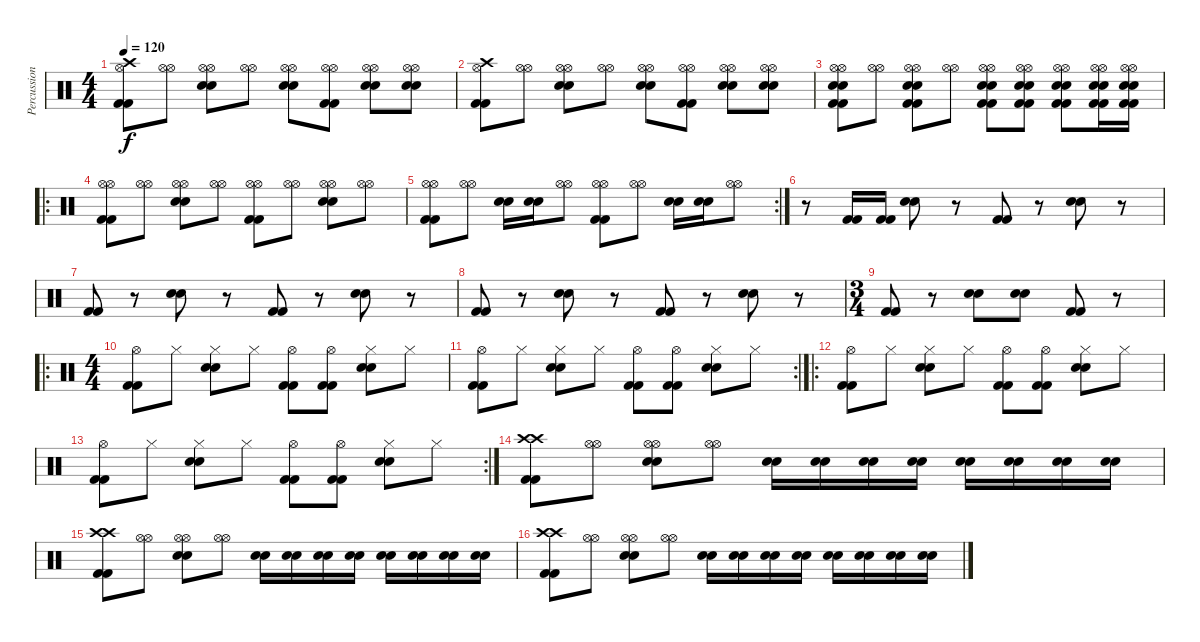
\track ("Percussions" "Percussion") {instrument percussion}
\staff {score}
\articulation defaults
\ts (4 4)
\tempo 120
\clef neutral
\ks c
("Crash high (hit)" "Hi-Hat (open)" "Kick (hit) 2" "Kick (hit) 2").8{dy f} ("Hi-Hat (open)" "Hi-Hat (open)").8 ("Hi-Hat (open)" "Hi-Hat (open)" "Snare (hit) 2" "Snare (hit) 2").8 ("Hi-Hat (open)" "Hi-Hat (open)").8 ("Hi-Hat (open)" "Hi-Hat (open)" "Snare (hit) 2" "Snare (hit) 2").8 ("Hi-Hat (open)" "Hi-Hat (open)" "Kick (hit) 2" "Kick (hit) 2").8 ("Hi-Hat (open)" "Hi-Hat (open)" "Snare (hit) 2" "Snare (hit) 2").8 ("Hi-Hat (open)" "Hi-Hat (open)" "Snare (hit) 2" "Snare (hit) 2").8 |
("Crash high (hit)" "Hi-Hat (open)" "Kick (hit) 2" "Kick (hit) 2").8 ("Hi-Hat (open)" "Hi-Hat (open)").8 ("Hi-Hat (open)" "Hi-Hat (open)" "Snare (hit) 2" "Snare (hit) 2").8 ("Hi-Hat (open)" "Hi-Hat (open)").8 ("Hi-Hat (open)" "Hi-Hat (open)" "Snare (hit) 2" "Snare (hit) 2").8 ("Hi-Hat (open)" "Hi-Hat (open)" "Kick (hit) 2" "Kick (hit) 2").8 ("Hi-Hat (open)" "Hi-Hat (open)" "Snare (hit) 2" "Snare (hit) 2").8 ("Hi-Hat (open)" "Hi-Hat (open)" "Snare (hit) 2" "Snare (hit) 2").8 |
("Hi-Hat (open)" "Hi-Hat (open)" "Snare (hit) 2" "Snare (hit) 2" "Kick (hit) 2" "Kick (hit) 2").8 ("Hi-Hat (open)" "Hi-Hat (open)").8 ("Hi-Hat (open)" "Hi-Hat (open)" "Snare (hit) 2" "Snare (hit) 2" "Kick (hit) 2" "Kick (hit) 2").8 ("Hi-Hat (open)" "Hi-Hat (open)").8 ("Hi-Hat (open)" "Hi-Hat (open)" "Snare (hit) 2" "Snare (hit) 2" "Kick (hit) 2" "Kick (hit) 2").8 ("Hi-Hat (open)" "Hi-Hat (open)" "Snare (hit) 2" "Snare (hit) 2" "Kick (hit) 2" "Kick (hit) 2").8 ("Hi-Hat (open)" "Hi-Hat (open)" "Snare (hit) 2" "Snare (hit) 2" "Kick (hit) 2" "Kick (hit) 2").8 ("Hi-Hat (open)" "Hi-Hat (open)" "Snare (hit) 2" "Snare (hit) 2" "Kick (hit) 2" "Kick (hit) 2").16 ("Hi-Hat (open)" "Hi-Hat (open)" "Snare (hit) 2" "Snare (hit) 2" "Kick (hit) 2" "Kick (hit) 2").16 |
\ro
("Hi-Hat (open)" "Hi-Hat (open)" "Kick (hit) 2" "Kick (hit) 2").8 ("Hi-Hat (open)" "Hi-Hat (open)").8 ("Hi-Hat (open)" "Hi-Hat (open)" "Snare (hit) 2" "Snare (hit) 2").8 ("Hi-Hat (open)" "Hi-Hat (open)").8 ("Hi-Hat (open)" "Hi-Hat (open)" "Kick (hit) 2" "Kick (hit) 2").8 ("Hi-Hat (open)" "Hi-Hat (open)").8 ("Hi-Hat (open)" "Hi-Hat (open)" "Snare (hit) 2" "Snare (hit) 2").8 ("Hi-Hat (open)" "Hi-Hat (open)").8 |
\rc 2
("Hi-Hat (open)" "Hi-Hat (open)" "Kick (hit) 2" "Kick (hit) 2").8 ("Hi-Hat (open)" "Hi-Hat (open)").8 ("Snare (hit) 2" "Snare (hit) 2").16 ("Snare (hit) 2" "Snare (hit) 2").16 ("Hi-Hat (open)" "Hi-Hat (open)").8 ("Hi-Hat (open)" "Hi-Hat (open)" "Kick (hit) 2" "Kick (hit) 2").8 ("Hi-Hat (open)" "Hi-Hat (open)").8 ("Snare (hit) 2" "Snare (hit) 2").16 ("Snare (hit) 2" "Snare (hit) 2").16 ("Hi-Hat (open)" "Hi-Hat (open)").8 |
r.8 ("Kick (hit) 2" "Kick (hit) 2").16 ("Kick (hit) 2" "Kick (hit) 2").16 ("Snare (hit) 2" "Snare (hit) 2").8 r.8 ("Kick (hit) 2" "Kick (hit) 2").8 r.8 ("Snare (hit) 2" "Snare (hit) 2").8 r.8 |
("Kick (hit) 2" "Kick (hit) 2").8 r.8 ("Snare (hit) 2" "Snare (hit) 2").8 r.8 ("Kick (hit) 2" "Kick (hit) 2").8 r.8 ("Snare (hit) 2" "Snare (hit) 2").8 r.8 |
("Kick (hit) 2" "Kick (hit) 2").8 r.8 ("Snare (hit) 2" "Snare (hit) 2").8 r.8 ("Kick (hit) 2" "Kick (hit) 2").8 r.8 ("Snare (hit) 2" "Snare (hit) 2").8 r.8 |
\ts (3 4)
("Kick (hit) 2" "Kick (hit) 2").8 r.8 ("Snare (hit) 2" "Snare (hit) 2").8 ("Snare (hit) 2" "Snare (hit) 2").8 ("Kick (hit) 2" "Kick (hit) 2").8 r.8 |
\ro
\ts (4 4)
("Hi-Hat (open)" "Kick (hit) 2" "Kick (hit) 2").8 "Hi-Hat (closed)".8 ("Hi-Hat (closed)" "Snare (hit) 2" "Snare (hit) 2").8 "Hi-Hat (closed)".8 ("Hi-Hat (open)" "Kick (hit) 2" "Kick (hit) 2").8 ("Hi-Hat (open)" "Kick (hit) 2" "Kick (hit) 2").8 ("Hi-Hat (closed)" "Snare (hit) 2" "Snare (hit) 2").8 "Hi-Hat (closed)".8 |
\rc 2
("Hi-Hat (open)" "Kick (hit) 2" "Kick (hit) 2").8 "Hi-Hat (closed)".8 ("Hi-Hat (closed)" "Snare (hit) 2" "Snare (hit) 2").8 "Hi-Hat (closed)".8 ("Hi-Hat (open)" "Kick (hit) 2" "Kick (hit) 2").8 ("Hi-Hat (open)" "Kick (hit) 2" "Kick (hit) 2").8 ("Hi-Hat (closed)" "Snare (hit) 2" "Snare (hit) 2").8 "Hi-Hat (closed)".8 |
\ro
("Hi-Hat (open)" "Kick (hit) 2" "Kick (hit) 2").8 "Hi-Hat (closed)".8 ("Hi-Hat (closed)" "Snare (hit) 2" "Snare (hit) 2").8 "Hi-Hat (closed)".8 ("Hi-Hat (open)" "Kick (hit) 2" "Kick (hit) 2").8 ("Hi-Hat (open)" "Kick (hit) 2" "Kick (hit) 2").8 ("Hi-Hat (closed)" "Snare (hit) 2" "Snare (hit) 2").8 "Hi-Hat (closed)".8 |
\rc 2
("Hi-Hat (open)" "Kick (hit) 2" "Kick (hit) 2").8 "Hi-Hat (closed)".8 ("Hi-Hat (closed)" "Snare (hit) 2" "Snare (hit) 2").8 "Hi-Hat (closed)".8 ("Hi-Hat (open)" "Kick (hit) 2" "Kick (hit) 2").8 ("Hi-Hat (open)" "Kick (hit) 2" "Kick (hit) 2").8 ("Hi-Hat (closed)" "Snare (hit) 2" "Snare (hit) 2").8 "Hi-Hat (closed)".8 |
("Crash high (hit)" "Crash high (hit)" "Kick (hit) 2" "Kick (hit) 2").8 ("Hi-Hat (open)" "Hi-Hat (open)").8 ("Hi-Hat (open)" "Hi-Hat (open)" "Snare (hit) 2" "Snare (hit) 2").8 ("Hi-Hat (open)" "Hi-Hat (open)").8 ("Snare (hit) 2" "Snare (hit) 2").16 ("Snare (hit) 2" "Snare (hit) 2").16 ("Snare (hit) 2" "Snare (hit) 2").16 ("Snare (hit) 2" "Snare (hit) 2").16 ("Snare (hit) 2" "Snare (hit) 2").16 ("Snare (hit) 2" "Snare (hit) 2").16 ("Snare (hit) 2" "Snare (hit) 2").16 ("Snare (hit) 2" "Snare (hit) 2").16 |
("Crash high (hit)" "Crash high (hit)" "Kick (hit) 2" "Kick (hit) 2").8 ("Hi-Hat (open)" "Hi-Hat (open)").8 ("Hi-Hat (open)" "Hi-Hat (open)" "Snare (hit) 2" "Snare (hit) 2").8 ("Hi-Hat (open)" "Hi-Hat (open)").8 ("Snare (hit) 2" "Snare (hit) 2").16 ("Snare (hit) 2" "Snare (hit) 2").16 ("Snare (hit) 2" "Snare (hit) 2").16 ("Snare (hit) 2" "Snare (hit) 2").16 ("Snare (hit) 2" "Snare (hit) 2").16 ("Snare (hit) 2" "Snare (hit) 2").16 ("Snare (hit) 2" "Snare (hit) 2").16 ("Snare (hit) 2" "Snare (hit) 2").16 |
("Crash high (hit)" "Crash high (hit)" "Kick (hit) 2" "Kick (hit) 2").8 ("Hi-Hat (open)" "Hi-Hat (open)").8 ("Hi-Hat (open)" "Hi-Hat (open)" "Snare (hit) 2" "Snare (hit) 2").8 ("Hi-Hat (open)" "Hi-Hat (open)").8 ("Snare (hit) 2" "Snare (hit) 2").16 ("Snare (hit) 2" "Snare (hit) 2").16 ("Snare (hit) 2" "Snare (hit) 2").16 ("Snare (hit) 2" "Snare (hit) 2").16 ("Snare (hit) 2" "Snare (hit) 2").16 ("Snare (hit) 2" "Snare (hit) 2").16 ("Snare (hit) 2" "Snare (hit) 2").16 ("Snare (hit) 2" "Snare (hit) 2").16
